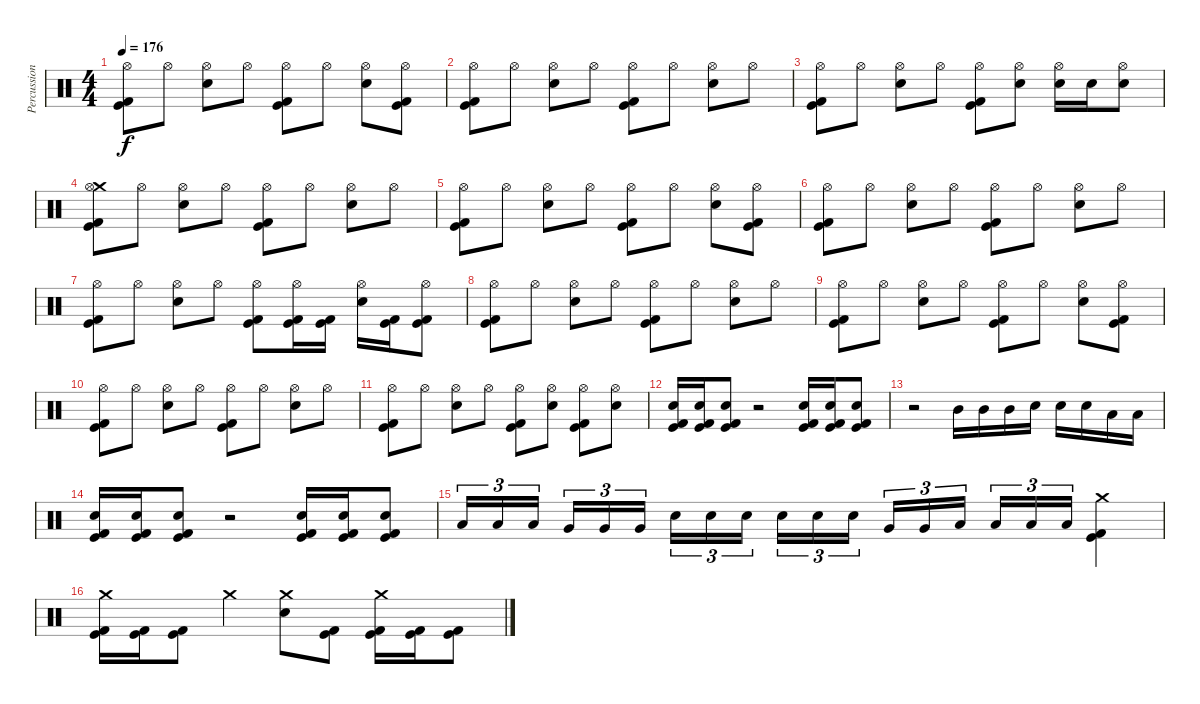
\track ("Percussions" "Percussion") {instrument percussion}
\staff {score}
\articulation defaults
\ts (4 4)
\tempo 176
\clef neutral
\ks c
("Hi-Hat (open)" "Kick (hit)" "Kick (hit) 2").8{dy f} "Hi-Hat (open)".8 ("Hi-Hat (open)" "Electric Snare (hit)").8 "Hi-Hat (open)".8 ("Hi-Hat (open)" "Kick (hit)" "Kick (hit) 2").8 "Hi-Hat (open)".8 ("Hi-Hat (open)" "Electric Snare (hit)").8 ("Hi-Hat (open)" "Kick (hit)" "Kick (hit) 2").8 |
("Hi-Hat (open)" "Kick (hit)" "Kick (hit) 2").8 "Hi-Hat (open)".8 ("Hi-Hat (open)" "Electric Snare (hit)").8 "Hi-Hat (open)".8 ("Hi-Hat (open)" "Kick (hit)" "Kick (hit) 2").8 "Hi-Hat (open)".8 ("Hi-Hat (open)" "Electric Snare (hit)").8 "Hi-Hat (open)".8 |
("Hi-Hat (open)" "Kick (hit)" "Kick (hit) 2").8 "Hi-Hat (open)".8 ("Hi-Hat (open)" "Electric Snare (hit)").8 "Hi-Hat (open)".8 ("Hi-Hat (open)" "Kick (hit)" "Kick (hit) 2").8 ("Hi-Hat (open)" "Electric Snare (hit)").8 ("Hi-Hat (open)" "Electric Snare (hit)").16 "Electric Snare (hit)".16 ("Hi-Hat (open)" "Electric Snare (hit)").8 |
("Crash medium (hit)" "Hi-Hat (open)" "Kick (hit)" "Kick (hit) 2").8 "Hi-Hat (open)".8 ("Hi-Hat (open)" "Electric Snare (hit)").8 "Hi-Hat (open)".8 ("Hi-Hat (open)" "Kick (hit)" "Kick (hit) 2").8 "Hi-Hat (open)".8 ("Hi-Hat (open)" "Electric Snare (hit)").8 "Hi-Hat (open)".8 |
("Hi-Hat (open)" "Kick (hit)" "Kick (hit) 2").8 "Hi-Hat (open)".8 ("Hi-Hat (open)" "Electric Snare (hit)").8 "Hi-Hat (open)".8 ("Hi-Hat (open)" "Kick (hit)" "Kick (hit) 2").8 "Hi-Hat (open)".8 ("Hi-Hat (open)" "Electric Snare (hit)").8 ("Hi-Hat (open)" "Kick (hit)" "Kick (hit) 2").8 |
("Hi-Hat (open)" "Kick (hit)" "Kick (hit) 2").8 "Hi-Hat (open)".8 ("Hi-Hat (open)" "Electric Snare (hit)").8 "Hi-Hat (open)".8 ("Hi-Hat (open)" "Kick (hit)" "Kick (hit) 2").8 "Hi-Hat (open)".8 ("Hi-Hat (open)" "Electric Snare (hit)").8 "Hi-Hat (open)".8 |
("Hi-Hat (open)" "Kick (hit)" "Kick (hit) 2").8 "Hi-Hat (open)".8 ("Hi-Hat (open)" "Electric Snare (hit)").8 "Hi-Hat (open)".8 ("Hi-Hat (open)" "Kick (hit)" "Kick (hit) 2").8 ("Hi-Hat (open)" "Kick (hit)" "Kick (hit) 2").16 ("Kick (hit)" "Kick (hit) 2").16 ("Hi-Hat (open)" "Electric Snare (hit)").16 ("Kick (hit)" "Kick (hit) 2").16 ("Hi-Hat (open)" "Kick (hit)" "Kick (hit) 2").8 |
("Hi-Hat (open)" "Kick (hit)" "Kick (hit) 2").8 "Hi-Hat (open)".8 ("Hi-Hat (open)" "Electric Snare (hit)").8 "Hi-Hat (open)".8 ("Hi-Hat (open)" "Kick (hit)" "Kick (hit) 2").8 "Hi-Hat (open)".8 ("Hi-Hat (open)" "Electric Snare (hit)").8 "Hi-Hat (open)".8 |
("Hi-Hat (open)" "Kick (hit)" "Kick (hit) 2").8 "Hi-Hat (open)".8 ("Hi-Hat (open)" "Electric Snare (hit)").8 "Hi-Hat (open)".8 ("Hi-Hat (open)" "Kick (hit)" "Kick (hit) 2").8 "Hi-Hat (open)".8 ("Hi-Hat (open)" "Electric Snare (hit)").8 ("Hi-Hat (open)" "Kick (hit)" "Kick (hit) 2").8 |
("Hi-Hat (open)" "Kick (hit)" "Kick (hit) 2").8 "Hi-Hat (open)".8 ("Hi-Hat (open)" "Electric Snare (hit)").8 "Hi-Hat (open)".8 ("Hi-Hat (open)" "Kick (hit)" "Kick (hit) 2").8 "Hi-Hat (open)".8 ("Hi-Hat (open)" "Electric Snare (hit)").8 "Hi-Hat (open)".8 |
("Hi-Hat (open)" "Kick (hit)" "Kick (hit) 2").8 "Hi-Hat (open)".8 ("Hi-Hat (open)" "Electric Snare (hit)").8 "Hi-Hat (open)".8 ("Hi-Hat (open)" "Kick (hit)" "Kick (hit) 2").8 ("Hi-Hat (open)" "Electric Snare (hit)").8 ("Hi-Hat (open)" "Kick (hit)" "Kick (hit) 2").8 ("Hi-Hat (open)" "Electric Snare (hit)").8 |
("Electric Snare (hit)" "Kick (hit)" "Kick (hit) 2").16 ("Electric Snare (hit)" "Kick (hit)" "Kick (hit) 2").16 ("Electric Snare (hit)" "Kick (hit)" "Kick (hit) 2").8 r.2 ("Electric Snare (hit)" "Kick (hit)" "Kick (hit) 2").16 ("Electric Snare (hit)" "Kick (hit)" "Kick (hit) 2").16 ("Electric Snare (hit)" "Kick (hit)" "Kick (hit) 2").8 |
r.2 "Mid Tom (hit)".16 "Mid Tom (hit)".16 "Mid Tom (hit)".16 "Electric Snare (hit)".16 "Electric Snare (hit)".16 "Electric Snare (hit)".16 "Low Tom (hit)".16 "Low Tom (hit)".16 |
("Electric Snare (hit)" "Kick (hit)" "Kick (hit) 2").16 ("Electric Snare (hit)" "Kick (hit)" "Kick (hit) 2").16 ("Electric Snare (hit)" "Kick (hit)" "Kick (hit) 2").8 r.2 ("Electric Snare (hit)" "Kick (hit)" "Kick (hit) 2").16 ("Electric Snare (hit)" "Kick (hit)" "Kick (hit) 2").16 ("Electric Snare (hit)" "Kick (hit)" "Kick (hit) 2").8 |
"Low Tom (hit)".16{tu (3 2)} "Low Tom (hit)".16{tu (3 2)} "Low Tom (hit)".16{tu (3 2)} "Very Low Tom (hit)".16{tu (3 2)} "Very Low Tom (hit)".16{tu (3 2)} "Very Low Tom (hit)".16{tu (3 2)} "Electric Snare (hit)".16{tu (3 2)} "Electric Snare (hit)".16{tu (3 2)} "Electric Snare (hit)".16{tu (3 2)} "Electric Snare (hit)".16{tu (3 2)} "Electric Snare (hit)".16{tu (3 2)} "Electric Snare (hit)".16{tu (3 2)} "Very Low Tom (hit)".16{tu (3 2)} "Very Low Tom (hit)".16{tu (3 2)} "Low Tom (hit)".16{tu (3 2)} "Low Floor Tom (hit)".16{tu (3 2)} "Low Floor Tom (hit)".16{tu (3 2)} "Low Floor Tom (hit)".16{tu (3 2)} ("Crash medium (hit)" "Kick (hit)" "Kick (hit) 2").4 |
("Crash medium (hit)" "Kick (hit)" "Kick (hit) 2").16 ("Kick (hit)" "Kick (hit) 2").16 ("Kick (hit)" "Kick (hit) 2").8 "Crash medium (hit)".4 ("Crash medium (hit)" "Electric Snare (hit)").8 ("Kick (hit)" "Kick (hit) 2").8 ("Crash medium (hit)" "Kick (hit)" "Kick (hit) 2").16 ("Kick (hit)" "Kick (hit) 2").16 ("Kick (hit)" "Kick (hit) 2").8
